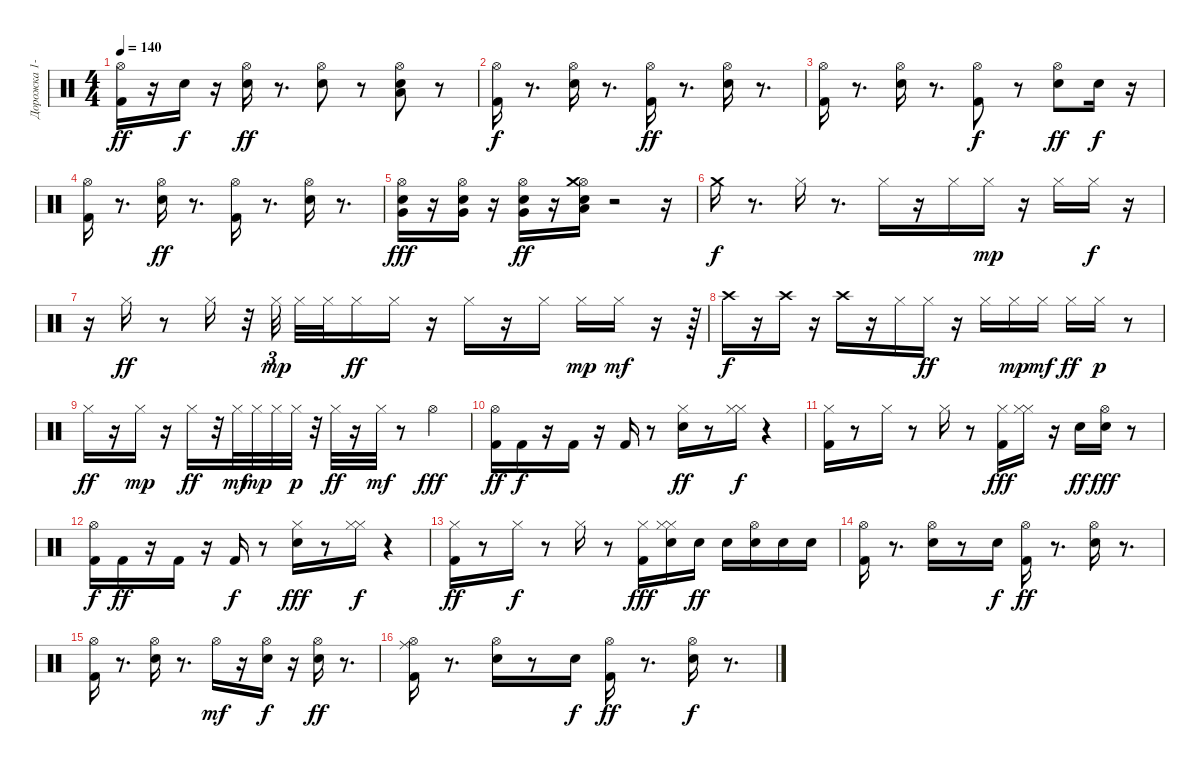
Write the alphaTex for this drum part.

\track ("Дорожка 1-2" "Дорожка 1-") {instrument percussion}
\staff {score}
\articulation defaults
\ts (4 4)
\tempo 140
\clef neutral
\ks c
("Hi-Hat (open)" "Kick (hit) 2").16{dy ff} r.16 "Electric Snare (hit)".16{dy f} r.16 ("Hi-Hat (open)" "Electric Snare (hit)").16{dy ff} r.8{d} ("Hi-Hat (open)" "Electric Snare (hit)").8 r.8 ("Electric Snare (hit)" "Hi-Hat (open)" "Low Floor Tom (hit)").8 r.8 |
("Hi-Hat (open)" "Kick (hit) 2").16{dy f} r.8{d} ("Hi-Hat (open)" "Electric Snare (hit)").16 r.8{d} ("Hi-Hat (open)" "Kick (hit) 2").16{dy ff} r.8{d} ("Hi-Hat (open)" "Electric Snare (hit)").16 r.8{d} |
("Hi-Hat (open)" "Kick (hit) 2").16 r.8{d} ("Hi-Hat (open)" "Electric Snare (hit)").16 r.8{d} ("Hi-Hat (open)" "Kick (hit) 2").8{dy f} r.8 ("Hi-Hat (open)" "Electric Snare (hit)").8{dy ff} "Electric Snare (hit)".16{dy f} r.16 |
("Hi-Hat (open)" "Kick (hit) 2").16 r.8{d} ("Hi-Hat (open)" "Electric Snare (hit)").16{dy ff} r.8{d} ("Hi-Hat (open)" "Kick (hit) 2").16 r.8{d} ("Hi-Hat (open)" "Electric Snare (hit)").16 r.8{d} |
("Very Low Tom (hit)" "Hi-Hat (open)" "Electric Snare (hit)").16{dy fff} r.16 ("Very Low Tom (hit)" "Hi-Hat (open)" "Electric Snare (hit)").16 r.16 ("Very Low Tom (hit)" "Hi-Hat (open)" "Electric Snare (hit)").16{dy ff} r.16 ("Electric Snare (hit)" "Low Tom (hit)" "Hi-Hat (open)" "Crash medium (hit)").16 r.2 r.16 |
"Crash medium (hit)".16{dy f} r.8{d} "Hi-Hat (closed)".16 r.8{d} "Hi-Hat (closed)".16 r.16 "Hi-Hat (closed)".16 "Hi-Hat (closed)".16{dy mp} r.16 "Hi-Hat (closed)".16 "Hi-Hat (closed)".16{dy f} r.16 |
r.16 "Hi-Hat (closed)".16{dy ff} r.8 "Hi-Hat (closed)".16 r.32 "Hi-Hat (closed)".32{tu (3 2) dy mp beam splitsecondary} "Hi-Hat (closed)".32 "Hi-Hat (closed)".32 "Hi-Hat (closed)".16{dy ff} "Hi-Hat (closed)".16 r.16 "Hi-Hat (closed)".16 r.16 "Hi-Hat (closed)".16 "Hi-Hat (closed)".16{dy mp} "Hi-Hat (closed)".16{dy mf} r.16 r.64{tu (3 2)} |
"Crash high (hit)".16{dy f} r.16 "Crash high (hit)".16 r.16 "Crash high (hit)".16 r.16 "Hi-Hat (closed)".16 "Hi-Hat (closed)".16{dy ff} r.16 "Hi-Hat (closed)".16 "Hi-Hat (closed)".16{dy mp} "Hi-Hat (closed)".16{dy mf} "Hi-Hat (closed)".16{dy ff} "Hi-Hat (closed)".16{dy p} r.8 |
"Hi-Hat (closed)".16{dy ff} r.16 "Hi-Hat (closed)".16{dy mp} r.16 "Hi-Hat (closed)".16{dy ff} r.32 "Hi-Hat (closed)".32{dy mf} "Hi-Hat (closed)".32{dy mp} "Hi-Hat (closed)".32 "Hi-Hat (closed)".32{dy p} r.32 "Hi-Hat (closed)".32{dy ff} r.16 "Hi-Hat (closed)".32{dy mf} r.8 "Hi-Hat (open)".4{dy fff} |
("Hi-Hat (open)" "Kick (hit) 2").16{dy ff} "Kick (hit) 2".16{dy f} r.16 "Kick (hit) 2".16 r.16 "Kick (hit) 2".16 r.8 ("Electric Snare (hit)" "Hi-Hat (closed)").16{dy ff} r.8 ("Hi-Hat (closed)" "Hi-Hat (closed)").16{dy f} r.4 |
("Hi-Hat (closed)" "Kick (hit) 2").16 r.8 "Hi-Hat (closed)".16 r.8 "Hi-Hat (closed)".16 r.8 ("Hi-Hat (closed)" "Kick (hit) 2").16{dy fff} ("Hi-Hat (closed)" "Hi-Hat (closed)").16 r.16 "Electric Snare (hit)".16{dy ff} ("Electric Snare (hit)" "Hi-Hat (open)").16{dy fff} r.8 |
("Kick (hit) 2" "Hi-Hat (open)").16{dy f} "Kick (hit) 2".16{dy ff} r.16 "Kick (hit) 2".16 r.16 "Kick (hit) 2".16{dy f} r.8 ("Hi-Hat (closed)" "Electric Snare (hit)").16{dy fff} r.8 ("Hi-Hat (closed)" "Hi-Hat (closed)").16{dy f} r.4 |
("Kick (hit) 2" "Hi-Hat (closed)").16{dy ff} r.8 "Hi-Hat (closed)".16{dy f} r.8 "Hi-Hat (closed)".16 r.8 ("Kick (hit) 2" "Hi-Hat (closed)").16{dy fff} ("Hi-Hat (closed)" "Electric Snare (hit)" "Hi-Hat (closed)").16 "Electric Snare (hit)".16{dy ff} "Electric Snare (hit)".16 ("Electric Snare (hit)" "Hi-Hat (open)").16 "Electric Snare (hit)".16 "Electric Snare (hit)".16 |
("Kick (hit) 2" "Hi-Hat (open)").16 r.8{d} ("Electric Snare (hit)" "Hi-Hat (open)").16 r.8 "Electric Snare (hit)".16{dy f} ("Kick (hit) 2" "Hi-Hat (open)").16{dy ff} r.8{d} ("Electric Snare (hit)" "Hi-Hat (open)").16 r.8{d} |
("Hi-Hat (open)" "Kick (hit) 2").16 r.8{d} ("Hi-Hat (open)" "Electric Snare (hit)").16 r.8{d} "Hi-Hat (open)".16{dy mf} r.16 ("Hi-Hat (open)" "Electric Snare (hit)").16{dy f} r.16 ("Hi-Hat (open)" "Electric Snare (hit)").16{dy ff} r.8{d} |
("Hi-Hat (open)" "Ride (middle)" "Kick (hit) 2").16 r.8{d} ("Electric Snare (hit)" "Hi-Hat (open)").16 r.8 "Electric Snare (hit)".16{dy f} ("Kick (hit) 2" "Hi-Hat (open)").16{dy ff} r.8{d} ("Electric Snare (hit)" "Hi-Hat (open)").16{dy f} r.8{d}
